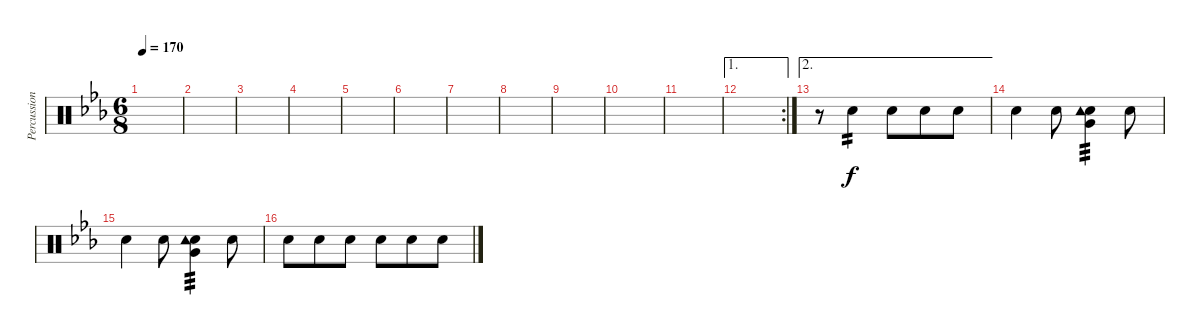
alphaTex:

\track ("Percussioni" "Percussion") {instrument percussion}
\staff {score}
\articulation defaults
\ts (6 8)
\tempo 170
\clef neutral
\ks eb
|
|
|
|
|
|
|
|
|
|
|
\ae 1
\rc 2
|
\ae 2
r.8 "Electric Snare (hit)".4{tp 2} "Electric Snare (hit)".8 "Electric Snare (hit)".8 "Electric Snare (hit)".8 |
"Electric Snare (hit)".4 "Electric Snare (hit)".8 ("Very Low Tom (hit)" "Electric Snare (hit)" "Tambourine (hit)").4{tp 3} "Electric Snare (hit)".8 |
"Electric Snare (hit)".4 "Electric Snare (hit)".8 ("Very Low Tom (hit)" "Electric Snare (hit)" "Tambourine (hit)").4{tp 3} "Electric Snare (hit)".8 |
"Electric Snare (hit)".8 "Electric Snare (hit)".8 "Electric Snare (hit)".8 "Electric Snare (hit)".8 "Electric Snare (hit)".8 "Electric Snare (hit)".8
